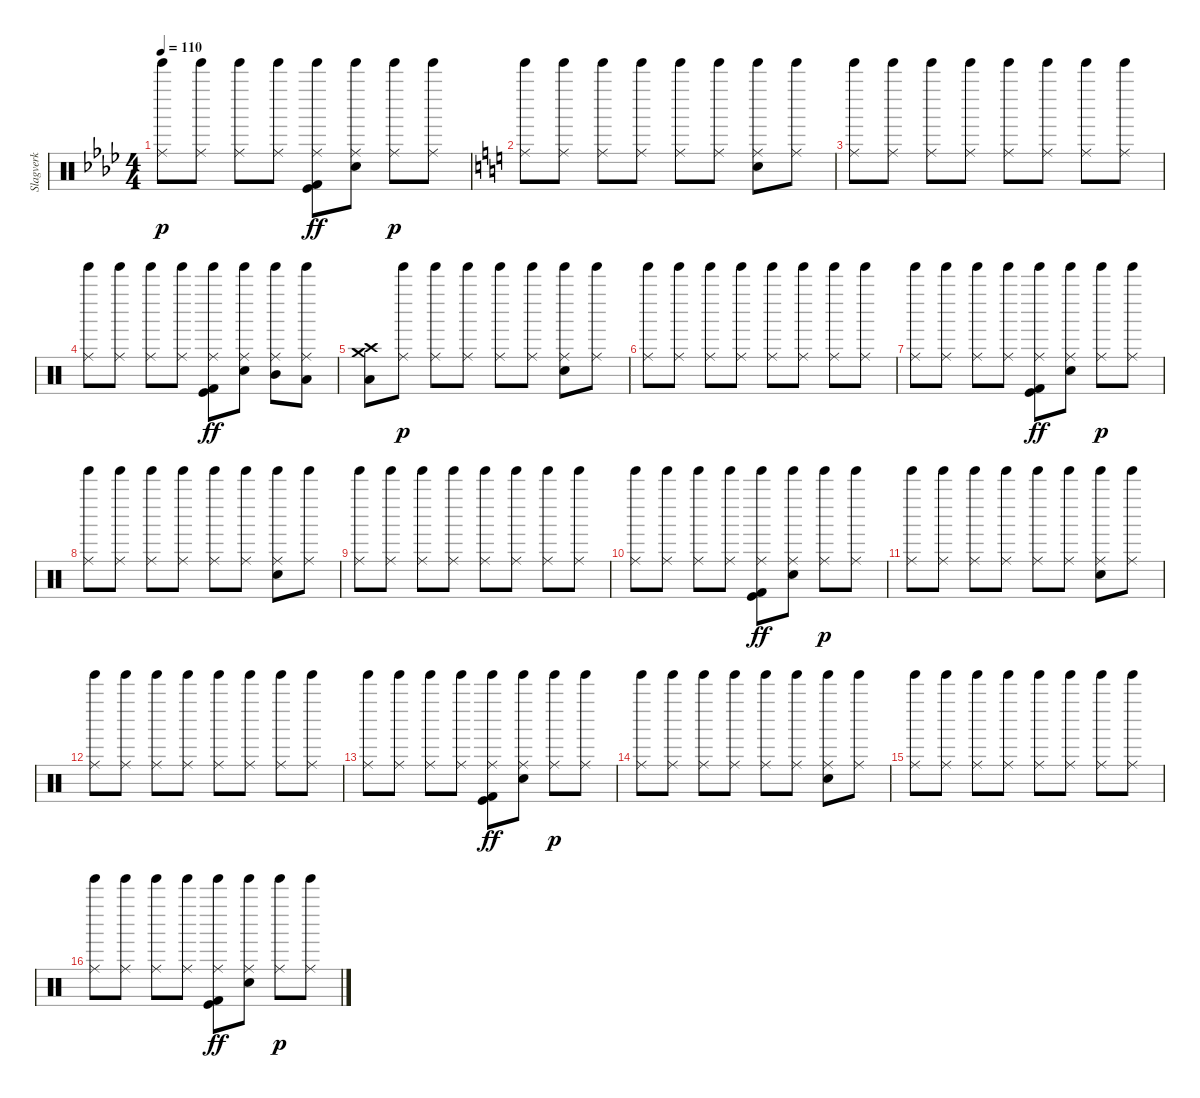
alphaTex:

\track ("Slagverk" "Slagverk") {instrument percussion}
\staff {score}
\articulation defaults
\ts (4 4)
\tempo 110
\clef neutral
\ks ab
("Tinkle Bell (hit)" "Ride (middle)").8{dy p} ("Tinkle Bell (hit)" "Ride (middle)").8 ("Tinkle Bell (hit)" "Ride (middle)").8 ("Tinkle Bell (hit)" "Ride (middle)").8 ("Tinkle Bell (hit)" "Ride (middle)" "Kick (hit) 2" "Kick (hit)").8{dy ff} ("Tinkle Bell (hit)" "Ride (middle)" "Electric Snare (hit)").8 ("Tinkle Bell (hit)" "Ride (middle)").8{dy p} ("Tinkle Bell (hit)" "Ride (middle)").8 |
\ks c
("Tinkle Bell (hit)" "Ride (middle)").8 ("Tinkle Bell (hit)" "Ride (middle)").8 ("Tinkle Bell (hit)" "Ride (middle)").8 ("Tinkle Bell (hit)" "Ride (middle)").8 ("Tinkle Bell (hit)" "Ride (middle)").8 ("Tinkle Bell (hit)" "Ride (middle)").8 ("Tinkle Bell (hit)" "Ride (middle)" "Electric Snare (hit)").8 ("Tinkle Bell (hit)" "Ride (middle)").8 |
("Tinkle Bell (hit)" "Ride (middle)").8 ("Tinkle Bell (hit)" "Ride (middle)").8 ("Tinkle Bell (hit)" "Ride (middle)").8 ("Tinkle Bell (hit)" "Ride (middle)").8 ("Tinkle Bell (hit)" "Ride (middle)").8 ("Tinkle Bell (hit)" "Ride (middle)").8 ("Tinkle Bell (hit)" "Ride (middle)").8 ("Tinkle Bell (hit)" "Ride (middle)").8 |
("Tinkle Bell (hit)" "Ride (middle)").8 ("Tinkle Bell (hit)" "Ride (middle)").8 ("Tinkle Bell (hit)" "Ride (middle)").8 ("Tinkle Bell (hit)" "Ride (middle)").8 ("Tinkle Bell (hit)" "Ride (middle)" "Kick (hit) 2" "Kick (hit)").8{dy ff} ("Tinkle Bell (hit)" "Ride (middle)" "Electric Snare (hit)").8 ("Tinkle Bell (hit)" "Ride (middle)" "Mid Tom (hit)").8 ("Tinkle Bell (hit)" "Ride (middle)" "Low Tom (hit)").8 |
("Crash high (hit)" "Crash medium (hit)" "Low Floor Tom (hit)").8 ("Tinkle Bell (hit)" "Ride (middle)").8{dy p} ("Tinkle Bell (hit)" "Ride (middle)").8 ("Tinkle Bell (hit)" "Ride (middle)").8 ("Tinkle Bell (hit)" "Ride (middle)").8 ("Tinkle Bell (hit)" "Ride (middle)").8 ("Tinkle Bell (hit)" "Ride (middle)" "Electric Snare (hit)").8 ("Tinkle Bell (hit)" "Ride (middle)").8 |
("Tinkle Bell (hit)" "Ride (middle)").8 ("Tinkle Bell (hit)" "Ride (middle)").8 ("Tinkle Bell (hit)" "Ride (middle)").8 ("Tinkle Bell (hit)" "Ride (middle)").8 ("Tinkle Bell (hit)" "Ride (middle)").8 ("Tinkle Bell (hit)" "Ride (middle)").8 ("Tinkle Bell (hit)" "Ride (middle)").8 ("Tinkle Bell (hit)" "Ride (middle)").8 |
("Tinkle Bell (hit)" "Ride (middle)").8 ("Tinkle Bell (hit)" "Ride (middle)").8 ("Tinkle Bell (hit)" "Ride (middle)").8 ("Tinkle Bell (hit)" "Ride (middle)").8 ("Tinkle Bell (hit)" "Ride (middle)" "Kick (hit) 2" "Kick (hit)").8{dy ff} ("Tinkle Bell (hit)" "Ride (middle)" "Electric Snare (hit)").8 ("Tinkle Bell (hit)" "Ride (middle)").8{dy p} ("Tinkle Bell (hit)" "Ride (middle)").8 |
("Tinkle Bell (hit)" "Ride (middle)").8 ("Tinkle Bell (hit)" "Ride (middle)").8 ("Tinkle Bell (hit)" "Ride (middle)").8 ("Tinkle Bell (hit)" "Ride (middle)").8 ("Tinkle Bell (hit)" "Ride (middle)").8 ("Tinkle Bell (hit)" "Ride (middle)").8 ("Tinkle Bell (hit)" "Ride (middle)" "Electric Snare (hit)").8 ("Tinkle Bell (hit)" "Ride (middle)").8 |
("Tinkle Bell (hit)" "Ride (middle)").8 ("Tinkle Bell (hit)" "Ride (middle)").8 ("Tinkle Bell (hit)" "Ride (middle)").8 ("Tinkle Bell (hit)" "Ride (middle)").8 ("Tinkle Bell (hit)" "Ride (middle)").8 ("Tinkle Bell (hit)" "Ride (middle)").8 ("Tinkle Bell (hit)" "Ride (middle)").8 ("Tinkle Bell (hit)" "Ride (middle)").8 |
("Tinkle Bell (hit)" "Ride (middle)").8 ("Tinkle Bell (hit)" "Ride (middle)").8 ("Tinkle Bell (hit)" "Ride (middle)").8 ("Tinkle Bell (hit)" "Ride (middle)").8 ("Tinkle Bell (hit)" "Ride (middle)" "Kick (hit) 2" "Kick (hit)").8{dy ff} ("Tinkle Bell (hit)" "Ride (middle)" "Electric Snare (hit)").8 ("Tinkle Bell (hit)" "Ride (middle)").8{dy p} ("Tinkle Bell (hit)" "Ride (middle)").8 |
("Tinkle Bell (hit)" "Ride (middle)").8 ("Tinkle Bell (hit)" "Ride (middle)").8 ("Tinkle Bell (hit)" "Ride (middle)").8 ("Tinkle Bell (hit)" "Ride (middle)").8 ("Tinkle Bell (hit)" "Ride (middle)").8 ("Tinkle Bell (hit)" "Ride (middle)").8 ("Tinkle Bell (hit)" "Ride (middle)" "Electric Snare (hit)").8 ("Tinkle Bell (hit)" "Ride (middle)").8 |
("Tinkle Bell (hit)" "Ride (middle)").8 ("Tinkle Bell (hit)" "Ride (middle)").8 ("Tinkle Bell (hit)" "Ride (middle)").8 ("Tinkle Bell (hit)" "Ride (middle)").8 ("Tinkle Bell (hit)" "Ride (middle)").8 ("Tinkle Bell (hit)" "Ride (middle)").8 ("Tinkle Bell (hit)" "Ride (middle)").8 ("Tinkle Bell (hit)" "Ride (middle)").8 |
("Tinkle Bell (hit)" "Ride (middle)").8 ("Tinkle Bell (hit)" "Ride (middle)").8 ("Tinkle Bell (hit)" "Ride (middle)").8 ("Tinkle Bell (hit)" "Ride (middle)").8 ("Tinkle Bell (hit)" "Ride (middle)" "Kick (hit) 2" "Kick (hit)").8{dy ff} ("Tinkle Bell (hit)" "Ride (middle)" "Electric Snare (hit)").8 ("Tinkle Bell (hit)" "Ride (middle)").8{dy p} ("Tinkle Bell (hit)" "Ride (middle)").8 |
("Tinkle Bell (hit)" "Ride (middle)").8 ("Tinkle Bell (hit)" "Ride (middle)").8 ("Tinkle Bell (hit)" "Ride (middle)").8 ("Tinkle Bell (hit)" "Ride (middle)").8 ("Tinkle Bell (hit)" "Ride (middle)").8 ("Tinkle Bell (hit)" "Ride (middle)").8 ("Tinkle Bell (hit)" "Ride (middle)" "Electric Snare (hit)").8 ("Tinkle Bell (hit)" "Ride (middle)").8 |
("Tinkle Bell (hit)" "Ride (middle)").8 ("Tinkle Bell (hit)" "Ride (middle)").8 ("Tinkle Bell (hit)" "Ride (middle)").8 ("Tinkle Bell (hit)" "Ride (middle)").8 ("Tinkle Bell (hit)" "Ride (middle)").8 ("Tinkle Bell (hit)" "Ride (middle)").8 ("Tinkle Bell (hit)" "Ride (middle)").8 ("Tinkle Bell (hit)" "Ride (middle)").8 |
("Tinkle Bell (hit)" "Ride (middle)").8 ("Tinkle Bell (hit)" "Ride (middle)").8 ("Tinkle Bell (hit)" "Ride (middle)").8 ("Tinkle Bell (hit)" "Ride (middle)").8 ("Tinkle Bell (hit)" "Ride (middle)" "Kick (hit) 2" "Kick (hit)").8{dy ff} ("Tinkle Bell (hit)" "Ride (middle)" "Electric Snare (hit)").8 ("Tinkle Bell (hit)" "Ride (middle)").8{dy p} ("Tinkle Bell (hit)" "Ride (middle)").8
